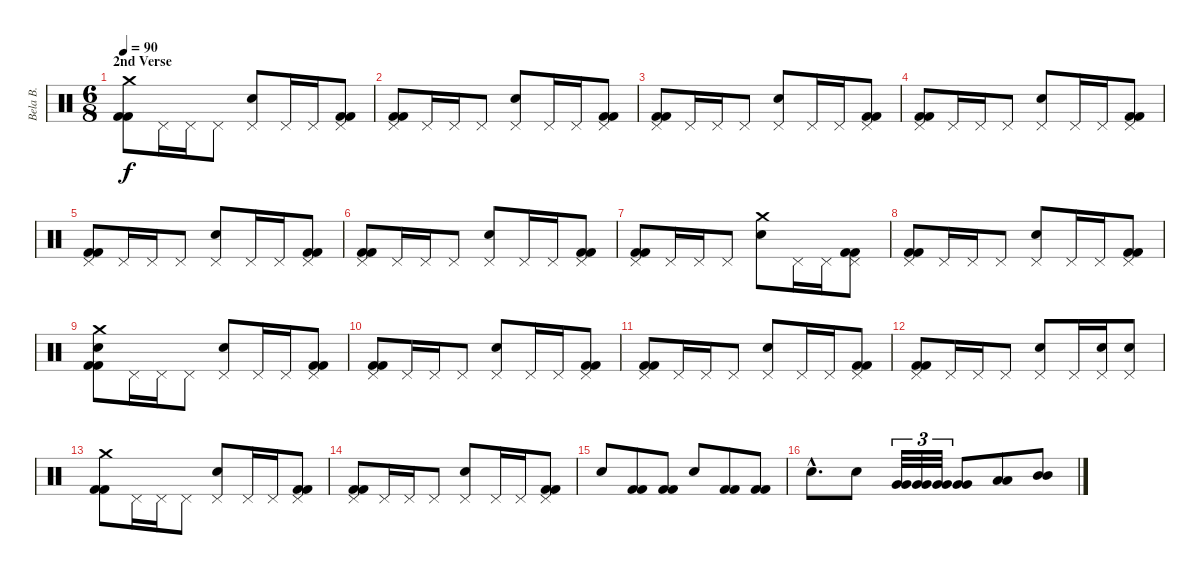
\track ("Bela B." "Bela B.") {instrument percussion}
\staff {score}
\articulation defaults
\ts (6 8)
\section ("" "2nd Verse")
\tempo 90
\clef neutral
\ks aminor
("Crash medium (hit)" "Kick (hit) 2" "Kick (hit) 2").8{dy f} "Pedal Hi-Hat (hit)".16 "Pedal Hi-Hat (hit)".16 "Pedal Hi-Hat (hit)".8 ("Pedal Hi-Hat (hit)" "Snare (hit) 2").8 "Pedal Hi-Hat (hit)".16 "Pedal Hi-Hat (hit)".16 ("Pedal Hi-Hat (hit)" "Kick (hit) 2" "Kick (hit) 2").8 |
("Pedal Hi-Hat (hit)" "Kick (hit) 2" "Kick (hit) 2").8 "Pedal Hi-Hat (hit)".16 "Pedal Hi-Hat (hit)".16 "Pedal Hi-Hat (hit)".8 ("Pedal Hi-Hat (hit)" "Snare (hit) 2").8 "Pedal Hi-Hat (hit)".16 "Pedal Hi-Hat (hit)".16 ("Pedal Hi-Hat (hit)" "Kick (hit) 2" "Kick (hit) 2").8 |
("Pedal Hi-Hat (hit)" "Kick (hit) 2" "Kick (hit) 2").8 "Pedal Hi-Hat (hit)".16 "Pedal Hi-Hat (hit)".16 "Pedal Hi-Hat (hit)".8 ("Pedal Hi-Hat (hit)" "Snare (hit) 2").8 "Pedal Hi-Hat (hit)".16 "Pedal Hi-Hat (hit)".16 ("Pedal Hi-Hat (hit)" "Kick (hit) 2" "Kick (hit) 2").8 |
("Pedal Hi-Hat (hit)" "Kick (hit) 2" "Kick (hit) 2").8 "Pedal Hi-Hat (hit)".16 "Pedal Hi-Hat (hit)".16 "Pedal Hi-Hat (hit)".8 ("Pedal Hi-Hat (hit)" "Snare (hit) 2").8 "Pedal Hi-Hat (hit)".16 "Pedal Hi-Hat (hit)".16 ("Pedal Hi-Hat (hit)" "Kick (hit) 2" "Kick (hit) 2").8 |
("Pedal Hi-Hat (hit)" "Kick (hit) 2" "Kick (hit) 2").8 "Pedal Hi-Hat (hit)".16 "Pedal Hi-Hat (hit)".16 "Pedal Hi-Hat (hit)".8 ("Pedal Hi-Hat (hit)" "Snare (hit) 2").8 "Pedal Hi-Hat (hit)".16 "Pedal Hi-Hat (hit)".16 ("Pedal Hi-Hat (hit)" "Kick (hit) 2" "Kick (hit) 2").8 |
("Pedal Hi-Hat (hit)" "Kick (hit) 2" "Kick (hit) 2").8 "Pedal Hi-Hat (hit)".16 "Pedal Hi-Hat (hit)".16 "Pedal Hi-Hat (hit)".8 ("Pedal Hi-Hat (hit)" "Snare (hit) 2").8 "Pedal Hi-Hat (hit)".16 "Pedal Hi-Hat (hit)".16 ("Pedal Hi-Hat (hit)" "Kick (hit) 2" "Kick (hit) 2").8 |
("Pedal Hi-Hat (hit)" "Kick (hit) 2" "Kick (hit) 2").8 "Pedal Hi-Hat (hit)".16 "Pedal Hi-Hat (hit)".16 "Pedal Hi-Hat (hit)".8 ("Crash medium (hit)" "Snare (hit) 2").8 "Pedal Hi-Hat (hit)".16 "Pedal Hi-Hat (hit)".16 ("Pedal Hi-Hat (hit)" "Kick (hit) 2" "Kick (hit) 2").8 |
("Pedal Hi-Hat (hit)" "Kick (hit) 2" "Kick (hit) 2").8 "Pedal Hi-Hat (hit)".16 "Pedal Hi-Hat (hit)".16 "Pedal Hi-Hat (hit)".8 ("Pedal Hi-Hat (hit)" "Snare (hit) 2").8 "Pedal Hi-Hat (hit)".16 "Pedal Hi-Hat (hit)".16 ("Pedal Hi-Hat (hit)" "Kick (hit) 2" "Kick (hit) 2").8 |
("Crash medium (hit)" "Snare (hit) 2" "Kick (hit) 2" "Kick (hit) 2").8 "Pedal Hi-Hat (hit)".16 "Pedal Hi-Hat (hit)".16 "Pedal Hi-Hat (hit)".8 ("Pedal Hi-Hat (hit)" "Snare (hit) 2").8 "Pedal Hi-Hat (hit)".16 "Pedal Hi-Hat (hit)".16 ("Pedal Hi-Hat (hit)" "Kick (hit) 2" "Kick (hit) 2").8 |
("Pedal Hi-Hat (hit)" "Kick (hit) 2" "Kick (hit) 2").8 "Pedal Hi-Hat (hit)".16 "Pedal Hi-Hat (hit)".16 "Pedal Hi-Hat (hit)".8 ("Pedal Hi-Hat (hit)" "Snare (hit) 2").8 "Pedal Hi-Hat (hit)".16 "Pedal Hi-Hat (hit)".16 ("Pedal Hi-Hat (hit)" "Kick (hit) 2" "Kick (hit) 2").8 |
("Pedal Hi-Hat (hit)" "Kick (hit) 2" "Kick (hit) 2").8 "Pedal Hi-Hat (hit)".16 "Pedal Hi-Hat (hit)".16 "Pedal Hi-Hat (hit)".8 ("Pedal Hi-Hat (hit)" "Snare (hit) 2").8 "Pedal Hi-Hat (hit)".16 "Pedal Hi-Hat (hit)".16 ("Pedal Hi-Hat (hit)" "Kick (hit) 2" "Kick (hit) 2").8 |
("Pedal Hi-Hat (hit)" "Kick (hit) 2" "Kick (hit) 2").8 "Pedal Hi-Hat (hit)".16 "Pedal Hi-Hat (hit)".16 "Pedal Hi-Hat (hit)".8 ("Pedal Hi-Hat (hit)" "Snare (hit) 2").8 "Pedal Hi-Hat (hit)".16 ("Pedal Hi-Hat (hit)" "Snare (hit) 2").16 ("Pedal Hi-Hat (hit)" "Snare (hit) 2").8 |
("Crash medium (hit)" "Kick (hit) 2" "Kick (hit) 2").8 "Pedal Hi-Hat (hit)".16 "Pedal Hi-Hat (hit)".16 "Pedal Hi-Hat (hit)".8 ("Pedal Hi-Hat (hit)" "Snare (hit) 2").8 "Pedal Hi-Hat (hit)".16 "Pedal Hi-Hat (hit)".16 ("Pedal Hi-Hat (hit)" "Kick (hit) 2" "Kick (hit) 2").8 |
("Pedal Hi-Hat (hit)" "Kick (hit) 2" "Kick (hit) 2").8 "Pedal Hi-Hat (hit)".16 "Pedal Hi-Hat (hit)".16 "Pedal Hi-Hat (hit)".8 ("Pedal Hi-Hat (hit)" "Snare (hit) 2").8 "Pedal Hi-Hat (hit)".16 "Pedal Hi-Hat (hit)".16 ("Pedal Hi-Hat (hit)" "Kick (hit) 2" "Kick (hit) 2").8 |
"Snare (hit) 2".8 ("Kick (hit) 2" "Kick (hit) 2").8 ("Kick (hit) 2" "Kick (hit) 2").8 "Snare (hit) 2".8 ("Kick (hit) 2" "Kick (hit) 2").8 ("Kick (hit) 2" "Kick (hit) 2").8 |
"Snare (hit) 2"{hac}.8{d} "Snare (hit) 2".8 ("Very Low Tom (hit)" "Very Low Tom (hit)").32{tu (3 2)} ("Very Low Tom (hit)" "Very Low Tom (hit)").32{tu (3 2)} ("Very Low Tom (hit)" "Very Low Tom (hit)").32{tu (3 2)} ("Very Low Tom (hit)" "Very Low Tom (hit)").8 ("Low Tom (hit)" "Low Tom (hit)").8 ("Mid Tom (hit)" "Mid Tom (hit)").8
